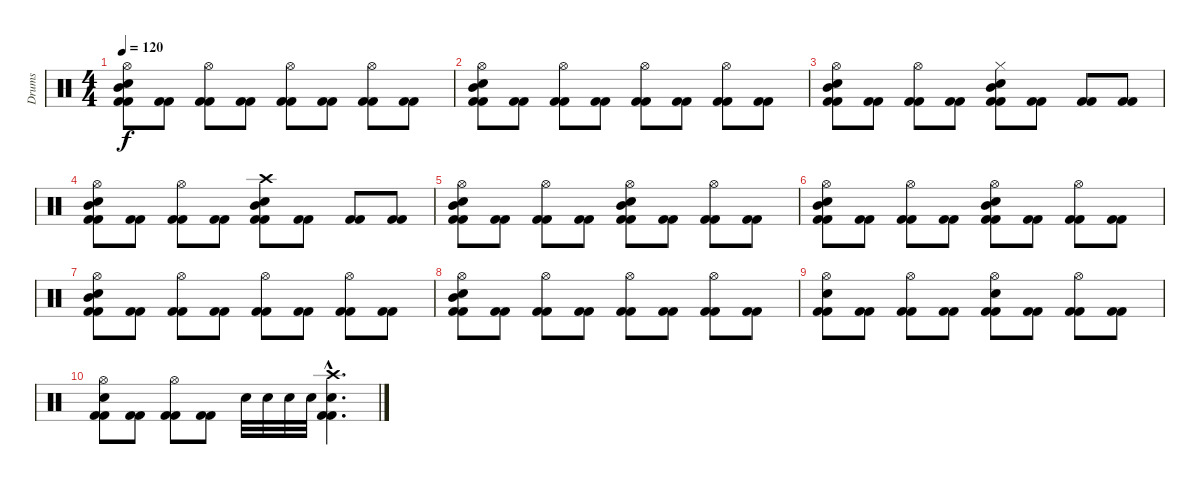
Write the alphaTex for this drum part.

\track ("Drums" "Drums") {instrument percussion}
\staff {score}
\articulation defaults
\ts (4 4)
\tempo 120
\clef neutral
\ks c
("Hi-Hat (open)" "Mid Tom (hit)" "Snare (hit) 2" "Kick (hit) 2" "Kick (hit) 2").8{dy f} ("Kick (hit) 2" "Kick (hit) 2").8 ("Hi-Hat (open)" "Kick (hit) 2" "Kick (hit) 2").8 ("Kick (hit) 2" "Kick (hit) 2").8 ("Hi-Hat (open)" "Kick (hit) 2" "Kick (hit) 2").8 ("Kick (hit) 2" "Kick (hit) 2").8 ("Hi-Hat (open)" "Kick (hit) 2" "Kick (hit) 2").8 ("Kick (hit) 2" "Kick (hit) 2").8 |
("Hi-Hat (open)" "Mid Tom (hit)" "Snare (hit) 2" "Kick (hit) 2" "Kick (hit) 2").8 ("Kick (hit) 2" "Kick (hit) 2").8 ("Hi-Hat (open)" "Kick (hit) 2" "Kick (hit) 2").8 ("Kick (hit) 2" "Kick (hit) 2").8 ("Hi-Hat (open)" "Kick (hit) 2" "Kick (hit) 2").8 ("Kick (hit) 2" "Kick (hit) 2").8 ("Hi-Hat (open)" "Kick (hit) 2" "Kick (hit) 2").8 ("Kick (hit) 2" "Kick (hit) 2").8 |
("Hi-Hat (open)" "Mid Tom (hit)" "Snare (hit) 2" "Kick (hit) 2" "Kick (hit) 2").8 ("Kick (hit) 2" "Kick (hit) 2").8 ("Hi-Hat (open)" "Kick (hit) 2" "Kick (hit) 2").8 ("Kick (hit) 2" "Kick (hit) 2").8 ("Hi-Hat (closed)" "Mid Tom (hit)" "Snare (hit) 2" "Kick (hit) 2" "Kick (hit) 2").8 ("Kick (hit) 2" "Kick (hit) 2").8 ("Kick (hit) 2" "Kick (hit) 2").8 ("Kick (hit) 2" "Kick (hit) 2").8 |
("Hi-Hat (open)" "Mid Tom (hit)" "Snare (hit) 2" "Kick (hit) 2" "Kick (hit) 2").8 ("Kick (hit) 2" "Kick (hit) 2").8 ("Hi-Hat (open)" "Kick (hit) 2" "Kick (hit) 2").8 ("Kick (hit) 2" "Kick (hit) 2").8 ("Crash high (hit)" "Mid Tom (hit)" "Snare (hit) 2" "Kick (hit) 2" "Kick (hit) 2").8 ("Kick (hit) 2" "Kick (hit) 2").8 ("Kick (hit) 2" "Kick (hit) 2").8 ("Kick (hit) 2" "Kick (hit) 2").8 |
("Hi-Hat (open)" "Mid Tom (hit)" "Snare (hit) 2" "Kick (hit) 2" "Kick (hit) 2").8 ("Kick (hit) 2" "Kick (hit) 2").8 ("Hi-Hat (open)" "Kick (hit) 2" "Kick (hit) 2").8 ("Kick (hit) 2" "Kick (hit) 2").8 ("Hi-Hat (open)" "Mid Tom (hit)" "Snare (hit) 2" "Kick (hit) 2" "Kick (hit) 2").8 ("Kick (hit) 2" "Kick (hit) 2").8 ("Hi-Hat (open)" "Kick (hit) 2" "Kick (hit) 2").8 ("Kick (hit) 2" "Kick (hit) 2").8 |
("Hi-Hat (open)" "Mid Tom (hit)" "Snare (hit) 2" "Kick (hit) 2" "Kick (hit) 2").8 ("Kick (hit) 2" "Kick (hit) 2").8 ("Hi-Hat (open)" "Kick (hit) 2" "Kick (hit) 2").8 ("Kick (hit) 2" "Kick (hit) 2").8 ("Hi-Hat (open)" "Mid Tom (hit)" "Snare (hit) 2" "Kick (hit) 2" "Kick (hit) 2").8 ("Kick (hit) 2" "Kick (hit) 2").8 ("Hi-Hat (open)" "Kick (hit) 2" "Kick (hit) 2").8 ("Kick (hit) 2" "Kick (hit) 2").8 |
("Hi-Hat (open)" "Mid Tom (hit)" "Snare (hit) 2" "Kick (hit) 2" "Kick (hit) 2").8 ("Kick (hit) 2" "Kick (hit) 2").8 ("Hi-Hat (open)" "Kick (hit) 2" "Kick (hit) 2").8 ("Kick (hit) 2" "Kick (hit) 2").8 ("Hi-Hat (open)" "Kick (hit) 2" "Kick (hit) 2").8 ("Kick (hit) 2" "Kick (hit) 2").8 ("Hi-Hat (open)" "Kick (hit) 2" "Kick (hit) 2").8 ("Kick (hit) 2" "Kick (hit) 2").8 |
("Hi-Hat (open)" "Mid Tom (hit)" "Snare (hit) 2" "Kick (hit) 2" "Kick (hit) 2").8 ("Kick (hit) 2" "Kick (hit) 2").8 ("Hi-Hat (open)" "Kick (hit) 2" "Kick (hit) 2").8 ("Kick (hit) 2" "Kick (hit) 2").8 ("Hi-Hat (open)" "Kick (hit) 2" "Kick (hit) 2").8 ("Kick (hit) 2" "Kick (hit) 2").8 ("Hi-Hat (open)" "Kick (hit) 2" "Kick (hit) 2").8 ("Kick (hit) 2" "Kick (hit) 2").8 |
("Hi-Hat (open)" "Snare (hit) 2" "Kick (hit) 2" "Kick (hit) 2").8 ("Kick (hit) 2" "Kick (hit) 2").8 ("Hi-Hat (open)" "Kick (hit) 2" "Kick (hit) 2").8 ("Kick (hit) 2" "Kick (hit) 2").8 ("Hi-Hat (open)" "Snare (hit) 2" "Kick (hit) 2" "Kick (hit) 2").8 ("Kick (hit) 2" "Kick (hit) 2").8 ("Hi-Hat (open)" "Kick (hit) 2" "Kick (hit) 2").8 ("Kick (hit) 2" "Kick (hit) 2").8 |
("Hi-Hat (open)" "Snare (hit) 2" "Kick (hit) 2" "Kick (hit) 2").8 ("Kick (hit) 2" "Kick (hit) 2").8 ("Hi-Hat (open)" "Kick (hit) 2" "Kick (hit) 2").8 ("Kick (hit) 2" "Kick (hit) 2").8 "Snare (hit) 2".32 "Snare (hit) 2".32 "Snare (hit) 2".32 "Snare (hit) 2".32 ("Crash high (hit)"{hac} "Snare (hit) 2"{hac} "Kick (hit) 2"{hac} "Kick (hit) 2"{hac}).4{d}
